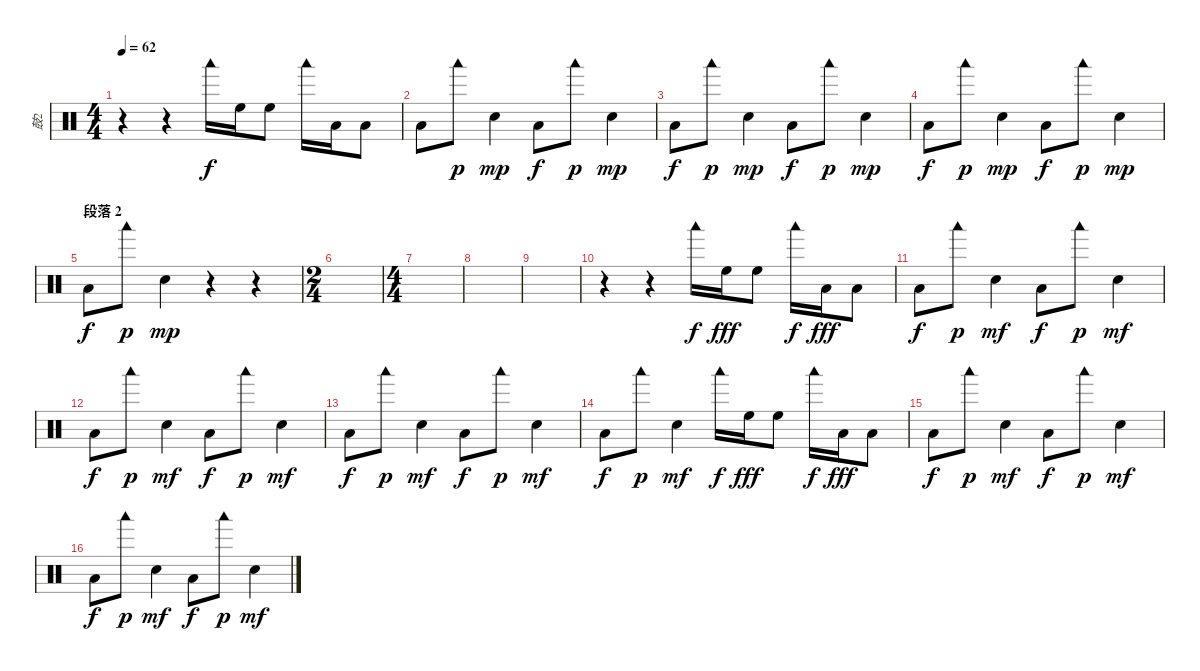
\track ("鼓2" "鼓2") {instrument percussion}
\staff {score}
\articulation defaults
\ts (4 4)
\tempo 62
\clef neutral
\ks c
r.4{dy f} r.4 "Woodblock low (hit)".16 "High Floor Tom (hit)".16 "High Floor Tom (hit)".8 "Woodblock low (hit)".16 "Low Tom (hit)".16 "Low Tom (hit)".8 |
"Low Floor Tom (hit)".8 "Woodblock low (hit)".8{dy p} "Electric Snare (hit)".4{dy mp} "Low Floor Tom (hit)".8{dy f} "Woodblock low (hit)".8{dy p} "Electric Snare (hit)".4{dy mp} |
"Low Floor Tom (hit)".8{dy f} "Woodblock low (hit)".8{dy p} "Electric Snare (hit)".4{dy mp} "Low Floor Tom (hit)".8{dy f} "Woodblock low (hit)".8{dy p} "Electric Snare (hit)".4{dy mp} |
"Low Floor Tom (hit)".8{dy f} "Woodblock low (hit)".8{dy p} "Electric Snare (hit)".4{dy mp} "Low Floor Tom (hit)".8{dy f} "Woodblock low (hit)".8{dy p} "Electric Snare (hit)".4{dy mp} |
\section ("" "段落 2")
"Low Floor Tom (hit)".8{dy f} "Woodblock low (hit)".8{dy p} "Electric Snare (hit)".4{dy mp} r.4 r.4 |
\ts (2 4)
|
\ts (4 4)
|
|
|
r.4 r.4 "Woodblock low (hit)".16{dy f} "High Floor Tom (hit)".16{dy fff} "High Floor Tom (hit)".8 "Woodblock low (hit)".16{dy f} "Low Tom (hit)".16{dy fff} "Low Tom (hit)".8 |
"Low Floor Tom (hit)".8{dy f} "Woodblock low (hit)".8{dy p} "Electric Snare (hit)".4{dy mf} "Low Floor Tom (hit)".8{dy f} "Woodblock low (hit)".8{dy p} "Electric Snare (hit)".4{dy mf} |
"Low Floor Tom (hit)".8{dy f} "Woodblock low (hit)".8{dy p} "Electric Snare (hit)".4{dy mf} "Low Floor Tom (hit)".8{dy f} "Woodblock low (hit)".8{dy p} "Electric Snare (hit)".4{dy mf} |
"Low Floor Tom (hit)".8{dy f} "Woodblock low (hit)".8{dy p} "Electric Snare (hit)".4{dy mf} "Low Floor Tom (hit)".8{dy f} "Woodblock low (hit)".8{dy p} "Electric Snare (hit)".4{dy mf} |
"Low Floor Tom (hit)".8{dy f} "Woodblock low (hit)".8{dy p} "Electric Snare (hit)".4{dy mf} "Woodblock low (hit)".16{dy f} "High Floor Tom (hit)".16{dy fff} "High Floor Tom (hit)".8 "Woodblock low (hit)".16{dy f} "Low Tom (hit)".16{dy fff} "Low Tom (hit)".8 |
"Low Floor Tom (hit)".8{dy f} "Woodblock low (hit)".8{dy p} "Electric Snare (hit)".4{dy mf} "Low Floor Tom (hit)".8{dy f} "Woodblock low (hit)".8{dy p} "Electric Snare (hit)".4{dy mf} |
"Low Floor Tom (hit)".8{dy f} "Woodblock low (hit)".8{dy p} "Electric Snare (hit)".4{dy mf} "Low Floor Tom (hit)".8{dy f} "Woodblock low (hit)".8{dy p} "Electric Snare (hit)".4{dy mf}
